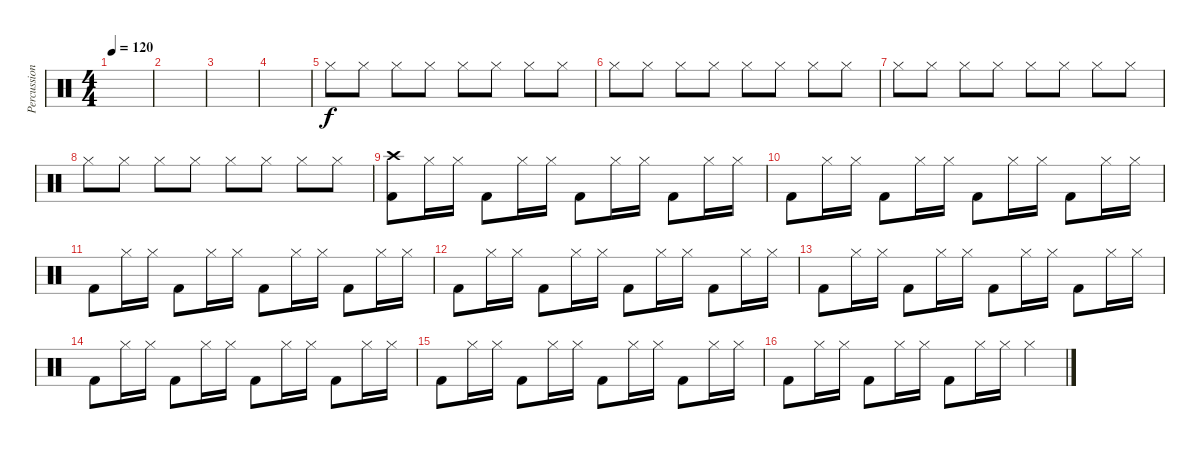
\track ("Percussion" "Percussion") {instrument percussion}
\staff {score}
\articulation defaults
\ts (4 4)
\tempo 120
\clef neutral
\ks c
|
|
|
|
"Hi-Hat (closed)".8 "Hi-Hat (closed)".8 "Hi-Hat (closed)".8 "Hi-Hat (closed)".8 "Hi-Hat (closed)".8 "Hi-Hat (closed)".8 "Hi-Hat (closed)".8 "Hi-Hat (closed)".8 |
"Hi-Hat (closed)".8 "Hi-Hat (closed)".8 "Hi-Hat (closed)".8 "Hi-Hat (closed)".8 "Hi-Hat (closed)".8 "Hi-Hat (closed)".8 "Hi-Hat (closed)".8 "Hi-Hat (closed)".8 |
"Hi-Hat (closed)".8 "Hi-Hat (closed)".8 "Hi-Hat (closed)".8 "Hi-Hat (closed)".8 "Hi-Hat (closed)".8 "Hi-Hat (closed)".8 "Hi-Hat (closed)".8 "Hi-Hat (closed)".8 |
"Hi-Hat (closed)".8 "Hi-Hat (closed)".8 "Hi-Hat (closed)".8 "Hi-Hat (closed)".8 "Hi-Hat (closed)".8 "Hi-Hat (closed)".8 "Hi-Hat (closed)".8 "Hi-Hat (closed)".8 |
("Crash high (hit)" "Kick (hit) 2").8 "Hi-Hat (closed)".16 "Hi-Hat (closed)".16 "Kick (hit) 2".8 "Hi-Hat (closed)".16 "Hi-Hat (closed)".16 "Kick (hit) 2".8 "Hi-Hat (closed)".16 "Hi-Hat (closed)".16 "Kick (hit) 2".8 "Hi-Hat (closed)".16 "Hi-Hat (closed)".16 |
"Kick (hit) 2".8 "Hi-Hat (closed)".16 "Hi-Hat (closed)".16 "Kick (hit) 2".8 "Hi-Hat (closed)".16 "Hi-Hat (closed)".16 "Kick (hit) 2".8 "Hi-Hat (closed)".16 "Hi-Hat (closed)".16 "Kick (hit) 2".8 "Hi-Hat (closed)".16 "Hi-Hat (closed)".16 |
"Kick (hit) 2".8 "Hi-Hat (closed)".16 "Hi-Hat (closed)".16 "Kick (hit) 2".8 "Hi-Hat (closed)".16 "Hi-Hat (closed)".16 "Kick (hit) 2".8 "Hi-Hat (closed)".16 "Hi-Hat (closed)".16 "Kick (hit) 2".8 "Hi-Hat (closed)".16 "Hi-Hat (closed)".16 |
"Kick (hit) 2".8 "Hi-Hat (closed)".16 "Hi-Hat (closed)".16 "Kick (hit) 2".8 "Hi-Hat (closed)".16 "Hi-Hat (closed)".16 "Kick (hit) 2".8 "Hi-Hat (closed)".16 "Hi-Hat (closed)".16 "Kick (hit) 2".8 "Hi-Hat (closed)".16 "Hi-Hat (closed)".16 |
"Kick (hit) 2".8 "Hi-Hat (closed)".16 "Hi-Hat (closed)".16 "Kick (hit) 2".8 "Hi-Hat (closed)".16 "Hi-Hat (closed)".16 "Kick (hit) 2".8 "Hi-Hat (closed)".16 "Hi-Hat (closed)".16 "Kick (hit) 2".8 "Hi-Hat (closed)".16 "Hi-Hat (closed)".16 |
"Kick (hit) 2".8 "Hi-Hat (closed)".16 "Hi-Hat (closed)".16 "Kick (hit) 2".8 "Hi-Hat (closed)".16 "Hi-Hat (closed)".16 "Kick (hit) 2".8 "Hi-Hat (closed)".16 "Hi-Hat (closed)".16 "Kick (hit) 2".8 "Hi-Hat (closed)".16 "Hi-Hat (closed)".16 |
"Kick (hit) 2".8 "Hi-Hat (closed)".16 "Hi-Hat (closed)".16 "Kick (hit) 2".8 "Hi-Hat (closed)".16 "Hi-Hat (closed)".16 "Kick (hit) 2".8 "Hi-Hat (closed)".16 "Hi-Hat (closed)".16 "Kick (hit) 2".8 "Hi-Hat (closed)".16 "Hi-Hat (closed)".16 |
"Kick (hit) 2".8 "Hi-Hat (closed)".16 "Hi-Hat (closed)".16 "Kick (hit) 2".8 "Hi-Hat (closed)".16 "Hi-Hat (closed)".16 "Kick (hit) 2".8 "Hi-Hat (closed)".16 "Hi-Hat (closed)".16 "Hi-Hat (closed)".4
